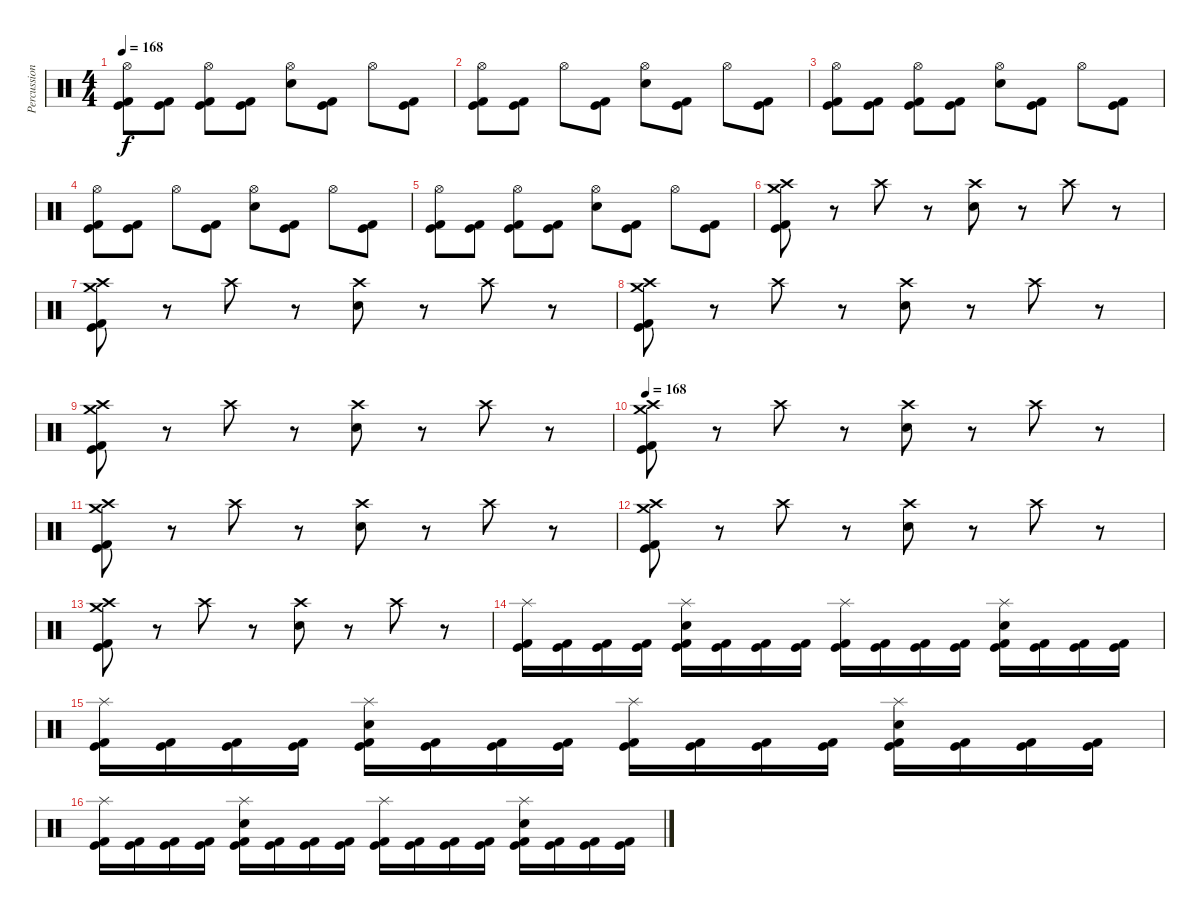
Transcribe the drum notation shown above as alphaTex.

\track ("Percussion" "Percussion") {instrument percussion}
\staff {score}
\articulation defaults
\ts (4 4)
\tempo 168
\clef neutral
\ks c
("Hi-Hat (open)" "Kick (hit) 2" "Kick (hit)").8{dy f} ("Kick (hit) 2" "Kick (hit)").8 ("Hi-Hat (open)" "Kick (hit) 2" "Kick (hit)").8 ("Kick (hit) 2" "Kick (hit)").8 ("Hi-Hat (open)" "Electric Snare (hit)").8 ("Kick (hit) 2" "Kick (hit)").8 "Hi-Hat (open)".8 ("Kick (hit) 2" "Kick (hit)").8 |
("Hi-Hat (open)" "Kick (hit) 2" "Kick (hit)").8 ("Kick (hit) 2" "Kick (hit)").8 "Hi-Hat (open)".8 ("Kick (hit) 2" "Kick (hit)").8 ("Hi-Hat (open)" "Electric Snare (hit)").8 ("Kick (hit) 2" "Kick (hit)").8 "Hi-Hat (open)".8 ("Kick (hit) 2" "Kick (hit)").8 |
("Hi-Hat (open)" "Kick (hit) 2" "Kick (hit)").8 ("Kick (hit) 2" "Kick (hit)").8 ("Hi-Hat (open)" "Kick (hit) 2" "Kick (hit)").8 ("Kick (hit) 2" "Kick (hit)").8 ("Hi-Hat (open)" "Electric Snare (hit)").8 ("Kick (hit) 2" "Kick (hit)").8 "Hi-Hat (open)".8 ("Kick (hit) 2" "Kick (hit)").8 |
("Hi-Hat (open)" "Kick (hit) 2" "Kick (hit)").8 ("Kick (hit) 2" "Kick (hit)").8 "Hi-Hat (open)".8 ("Kick (hit) 2" "Kick (hit)").8 ("Hi-Hat (open)" "Electric Snare (hit)").8 ("Kick (hit) 2" "Kick (hit)").8 "Hi-Hat (open)".8 ("Kick (hit) 2" "Kick (hit)").8 |
("Hi-Hat (open)" "Kick (hit) 2" "Kick (hit)").8 ("Kick (hit) 2" "Kick (hit)").8 ("Hi-Hat (open)" "Kick (hit) 2" "Kick (hit)").8 ("Kick (hit) 2" "Kick (hit)").8 ("Hi-Hat (open)" "Electric Snare (hit)").8 ("Kick (hit) 2" "Kick (hit)").8 "Hi-Hat (open)".8 ("Kick (hit) 2" "Kick (hit)").8 |
("Crash high (hit)" "Crash medium (hit)" "Kick (hit) 2" "Kick (hit)").8 r.8 "Crash high (hit)".8 r.8 ("Crash high (hit)" "Electric Snare (hit)").8 r.8 "Crash high (hit)".8 r.8 |
("Crash high (hit)" "Crash medium (hit)" "Kick (hit) 2" "Kick (hit)").8 r.8 "Crash high (hit)".8 r.8 ("Crash high (hit)" "Electric Snare (hit)").8 r.8 "Crash high (hit)".8 r.8 |
("Crash high (hit)" "Crash medium (hit)" "Kick (hit) 2" "Kick (hit)").8 r.8 "Crash high (hit)".8 r.8 ("Crash high (hit)" "Electric Snare (hit)").8 r.8 "Crash high (hit)".8 r.8 |
("Crash high (hit)" "Crash medium (hit)" "Kick (hit) 2" "Kick (hit)").8 r.8 "Crash high (hit)".8 r.8 ("Crash high (hit)" "Electric Snare (hit)").8 r.8 "Crash high (hit)".8 r.8 |
\tempo 168
("Crash high (hit)" "Crash medium (hit)" "Kick (hit) 2" "Kick (hit)").8 r.8 "Crash high (hit)".8 r.8 ("Crash high (hit)" "Electric Snare (hit)").8 r.8 "Crash high (hit)".8 r.8 |
("Crash high (hit)" "Crash medium (hit)" "Kick (hit) 2" "Kick (hit)").8 r.8 "Crash high (hit)".8 r.8 ("Crash high (hit)" "Electric Snare (hit)").8 r.8 "Crash high (hit)".8 r.8 |
("Crash high (hit)" "Crash medium (hit)" "Kick (hit) 2" "Kick (hit)").8 r.8 "Crash high (hit)".8 r.8 ("Crash high (hit)" "Electric Snare (hit)").8 r.8 "Crash high (hit)".8 r.8 |
("Crash high (hit)" "Crash medium (hit)" "Kick (hit) 2" "Kick (hit)").8 r.8 "Crash high (hit)".8 r.8 ("Crash high (hit)" "Electric Snare (hit)").8 r.8 "Crash high (hit)".8 r.8 |
("Splash (hit)" "Kick (hit) 2" "Kick (hit)").16 ("Kick (hit) 2" "Kick (hit)").16 ("Kick (hit) 2" "Kick (hit)").16 ("Kick (hit) 2" "Kick (hit)").16 ("Splash (hit)" "Electric Snare (hit)" "Kick (hit) 2" "Kick (hit)").16 ("Kick (hit) 2" "Kick (hit)").16 ("Kick (hit) 2" "Kick (hit)").16 ("Kick (hit) 2" "Kick (hit)").16 ("Splash (hit)" "Kick (hit) 2" "Kick (hit)").16 ("Kick (hit) 2" "Kick (hit)").16 ("Kick (hit) 2" "Kick (hit)").16 ("Kick (hit) 2" "Kick (hit)").16 ("Splash (hit)" "Electric Snare (hit)" "Kick (hit) 2" "Kick (hit)").16 ("Kick (hit) 2" "Kick (hit)").16 ("Kick (hit) 2" "Kick (hit)").16 ("Kick (hit) 2" "Kick (hit)").16 |
("Splash (hit)" "Kick (hit) 2" "Kick (hit)").16 ("Kick (hit) 2" "Kick (hit)").16 ("Kick (hit) 2" "Kick (hit)").16 ("Kick (hit) 2" "Kick (hit)").16 ("Splash (hit)" "Electric Snare (hit)" "Kick (hit) 2" "Kick (hit)").16 ("Kick (hit) 2" "Kick (hit)").16 ("Kick (hit) 2" "Kick (hit)").16 ("Kick (hit) 2" "Kick (hit)").16 ("Splash (hit)" "Kick (hit) 2" "Kick (hit)").16 ("Kick (hit) 2" "Kick (hit)").16 ("Kick (hit) 2" "Kick (hit)").16 ("Kick (hit) 2" "Kick (hit)").16 ("Splash (hit)" "Electric Snare (hit)" "Kick (hit) 2" "Kick (hit)").16 ("Kick (hit) 2" "Kick (hit)").16 ("Kick (hit) 2" "Kick (hit)").16 ("Kick (hit) 2" "Kick (hit)").16 |
("Splash (hit)" "Kick (hit) 2" "Kick (hit)").16 ("Kick (hit) 2" "Kick (hit)").16 ("Kick (hit) 2" "Kick (hit)").16 ("Kick (hit) 2" "Kick (hit)").16 ("Splash (hit)" "Electric Snare (hit)" "Kick (hit) 2" "Kick (hit)").16 ("Kick (hit) 2" "Kick (hit)").16 ("Kick (hit) 2" "Kick (hit)").16 ("Kick (hit) 2" "Kick (hit)").16 ("Splash (hit)" "Kick (hit) 2" "Kick (hit)").16 ("Kick (hit) 2" "Kick (hit)").16 ("Kick (hit) 2" "Kick (hit)").16 ("Kick (hit) 2" "Kick (hit)").16 ("Splash (hit)" "Electric Snare (hit)" "Kick (hit) 2" "Kick (hit)").16 ("Kick (hit) 2" "Kick (hit)").16 ("Kick (hit) 2" "Kick (hit)").16 ("Kick (hit) 2" "Kick (hit)").16
